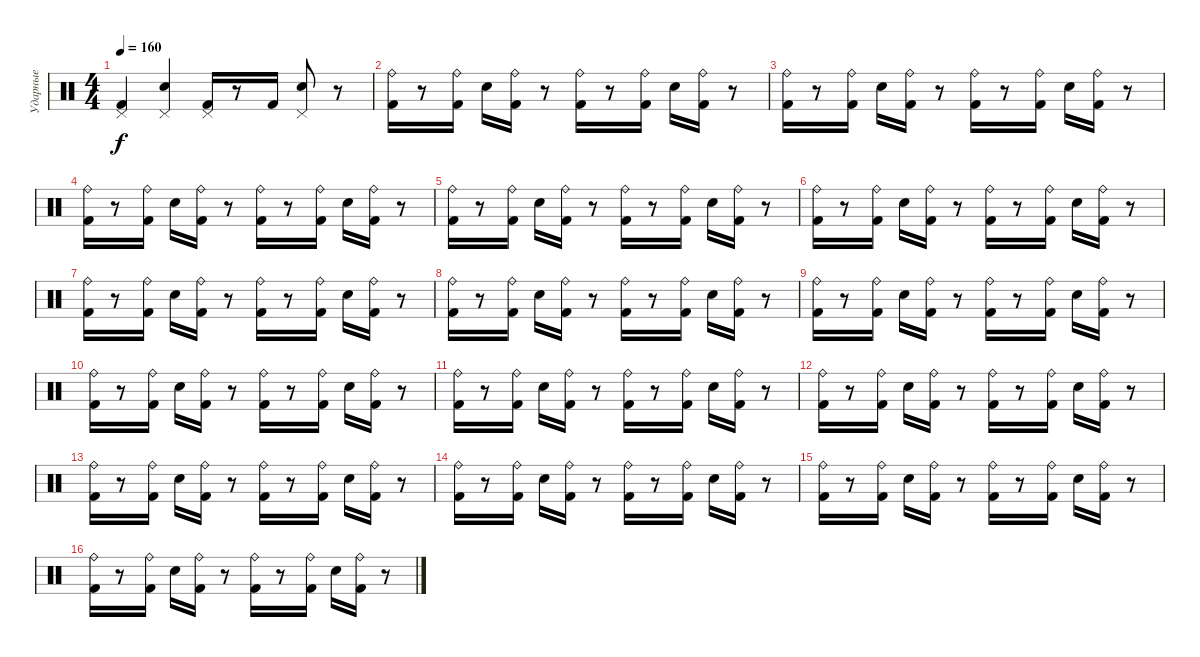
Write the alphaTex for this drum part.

\track ("Ударные" "Ударные") {instrument percussion}
\staff {score}
\articulation defaults
\ts (4 4)
\tempo 160
\clef neutral
\ks c
("Pedal Hi-Hat (hit)" "Kick (hit) 2").4{dy f} ("Pedal Hi-Hat (hit)" "Snare (hit) 2").4 ("Pedal Hi-Hat (hit)" "Kick (hit) 2").16 r.8 "Kick (hit) 2".16 ("Pedal Hi-Hat (hit)" "Snare (hit) 2").8 r.8 |
("Ride (bell)" "Kick (hit) 2").16 r.8 ("Ride (bell)" "Kick (hit) 2").16 "Snare (hit) 2".16 ("Ride (bell)" "Kick (hit) 2").16 r.8 ("Ride (bell)" "Kick (hit) 2").16 r.8 ("Ride (bell)" "Kick (hit) 2").16 "Snare (hit) 2".16 ("Ride (bell)" "Kick (hit) 2").16 r.8 |
("Ride (bell)" "Kick (hit) 2").16 r.8 ("Ride (bell)" "Kick (hit) 2").16 "Snare (hit) 2".16 ("Ride (bell)" "Kick (hit) 2").16 r.8 ("Ride (bell)" "Kick (hit) 2").16 r.8 ("Ride (bell)" "Kick (hit) 2").16 "Snare (hit) 2".16 ("Ride (bell)" "Kick (hit) 2").16 r.8 |
("Ride (bell)" "Kick (hit) 2").16 r.8 ("Ride (bell)" "Kick (hit) 2").16 "Snare (hit) 2".16 ("Ride (bell)" "Kick (hit) 2").16 r.8 ("Ride (bell)" "Kick (hit) 2").16 r.8 ("Ride (bell)" "Kick (hit) 2").16 "Snare (hit) 2".16 ("Ride (bell)" "Kick (hit) 2").16 r.8 |
("Ride (bell)" "Kick (hit) 2").16 r.8 ("Ride (bell)" "Kick (hit) 2").16 "Snare (hit) 2".16 ("Ride (bell)" "Kick (hit) 2").16 r.8 ("Ride (bell)" "Kick (hit) 2").16 r.8 ("Ride (bell)" "Kick (hit) 2").16 "Snare (hit) 2".16 ("Ride (bell)" "Kick (hit) 2").16 r.8 |
("Ride (bell)" "Kick (hit) 2").16 r.8 ("Ride (bell)" "Kick (hit) 2").16 "Snare (hit) 2".16 ("Ride (bell)" "Kick (hit) 2").16 r.8 ("Ride (bell)" "Kick (hit) 2").16 r.8 ("Ride (bell)" "Kick (hit) 2").16 "Snare (hit) 2".16 ("Ride (bell)" "Kick (hit) 2").16 r.8 |
("Ride (bell)" "Kick (hit) 2").16 r.8 ("Ride (bell)" "Kick (hit) 2").16 "Snare (hit) 2".16 ("Ride (bell)" "Kick (hit) 2").16 r.8 ("Ride (bell)" "Kick (hit) 2").16 r.8 ("Ride (bell)" "Kick (hit) 2").16 "Snare (hit) 2".16 ("Ride (bell)" "Kick (hit) 2").16 r.8 |
("Ride (bell)" "Kick (hit) 2").16 r.8 ("Ride (bell)" "Kick (hit) 2").16 "Snare (hit) 2".16 ("Ride (bell)" "Kick (hit) 2").16 r.8 ("Ride (bell)" "Kick (hit) 2").16 r.8 ("Ride (bell)" "Kick (hit) 2").16 "Snare (hit) 2".16 ("Ride (bell)" "Kick (hit) 2").16 r.8 |
("Ride (bell)" "Kick (hit) 2").16 r.8 ("Ride (bell)" "Kick (hit) 2").16 "Snare (hit) 2".16 ("Ride (bell)" "Kick (hit) 2").16 r.8 ("Ride (bell)" "Kick (hit) 2").16 r.8 ("Ride (bell)" "Kick (hit) 2").16 "Snare (hit) 2".16 ("Ride (bell)" "Kick (hit) 2").16 r.8 |
("Ride (bell)" "Kick (hit) 2").16 r.8 ("Ride (bell)" "Kick (hit) 2").16 "Snare (hit) 2".16 ("Ride (bell)" "Kick (hit) 2").16 r.8 ("Ride (bell)" "Kick (hit) 2").16 r.8 ("Ride (bell)" "Kick (hit) 2").16 "Snare (hit) 2".16 ("Ride (bell)" "Kick (hit) 2").16 r.8 |
("Ride (bell)" "Kick (hit) 2").16 r.8 ("Ride (bell)" "Kick (hit) 2").16 "Snare (hit) 2".16 ("Ride (bell)" "Kick (hit) 2").16 r.8 ("Ride (bell)" "Kick (hit) 2").16 r.8 ("Ride (bell)" "Kick (hit) 2").16 "Snare (hit) 2".16 ("Ride (bell)" "Kick (hit) 2").16 r.8 |
("Ride (bell)" "Kick (hit) 2").16 r.8 ("Ride (bell)" "Kick (hit) 2").16 "Snare (hit) 2".16 ("Ride (bell)" "Kick (hit) 2").16 r.8 ("Ride (bell)" "Kick (hit) 2").16 r.8 ("Ride (bell)" "Kick (hit) 2").16 "Snare (hit) 2".16 ("Ride (bell)" "Kick (hit) 2").16 r.8 |
("Ride (bell)" "Kick (hit) 2").16 r.8 ("Ride (bell)" "Kick (hit) 2").16 "Snare (hit) 2".16 ("Ride (bell)" "Kick (hit) 2").16 r.8 ("Ride (bell)" "Kick (hit) 2").16 r.8 ("Ride (bell)" "Kick (hit) 2").16 "Snare (hit) 2".16 ("Ride (bell)" "Kick (hit) 2").16 r.8 |
("Ride (bell)" "Kick (hit) 2").16 r.8 ("Ride (bell)" "Kick (hit) 2").16 "Snare (hit) 2".16 ("Ride (bell)" "Kick (hit) 2").16 r.8 ("Ride (bell)" "Kick (hit) 2").16 r.8 ("Ride (bell)" "Kick (hit) 2").16 "Snare (hit) 2".16 ("Ride (bell)" "Kick (hit) 2").16 r.8 |
("Ride (bell)" "Kick (hit) 2").16 r.8 ("Ride (bell)" "Kick (hit) 2").16 "Snare (hit) 2".16 ("Ride (bell)" "Kick (hit) 2").16 r.8 ("Ride (bell)" "Kick (hit) 2").16 r.8 ("Ride (bell)" "Kick (hit) 2").16 "Snare (hit) 2".16 ("Ride (bell)" "Kick (hit) 2").16 r.8 |
("Ride (bell)" "Kick (hit) 2").16 r.8 ("Ride (bell)" "Kick (hit) 2").16 "Snare (hit) 2".16 ("Ride (bell)" "Kick (hit) 2").16 r.8 ("Ride (bell)" "Kick (hit) 2").16 r.8 ("Ride (bell)" "Kick (hit) 2").16 "Snare (hit) 2".16 ("Ride (bell)" "Kick (hit) 2").16 r.8
